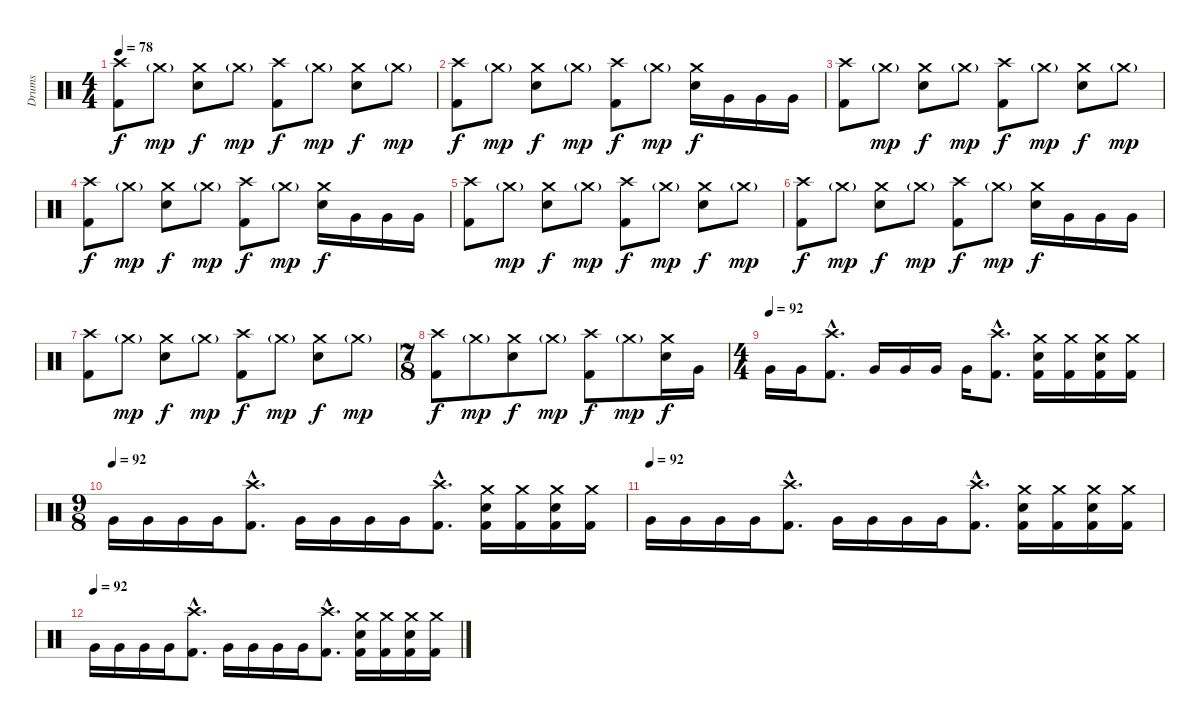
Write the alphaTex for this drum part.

\track ("Drums" "Drums") {instrument percussion}
\staff {score}
\articulation defaults
\ts (4 4)
\tempo 78
\clef neutral
\ks c
("Crash high (hit)" "Kick (hit) 2").8{dy f} "Crash medium (hit)"{g}.8{dy mp} ("Snare (hit) 2" "Crash medium (hit)").8{dy f} "Crash medium (hit)"{g}.8{dy mp} ("Crash high (hit)" "Kick (hit) 2").8{dy f} "Crash medium (hit)"{g}.8{dy mp} ("Snare (hit) 2" "Crash medium (hit)").8{dy f} "Crash medium (hit)"{g}.8{dy mp} |
("Crash high (hit)" "Kick (hit) 2").8{dy f} "Crash medium (hit)"{g}.8{dy mp} ("Snare (hit) 2" "Crash medium (hit)").8{dy f} "Crash medium (hit)"{g}.8{dy mp} ("Crash high (hit)" "Kick (hit) 2").8{dy f} "Crash medium (hit)"{g}.8{dy mp} ("Snare (hit) 2" "Crash medium (hit)").16{dy f} "Very Low Tom (hit)".16 "Very Low Tom (hit)".16 "Very Low Tom (hit)".16 |
("Crash high (hit)" "Kick (hit) 2").8 "Crash medium (hit)"{g}.8{dy mp} ("Snare (hit) 2" "Crash medium (hit)").8{dy f} "Crash medium (hit)"{g}.8{dy mp} ("Crash high (hit)" "Kick (hit) 2").8{dy f} "Crash medium (hit)"{g}.8{dy mp} ("Snare (hit) 2" "Crash medium (hit)").8{dy f} "Crash medium (hit)"{g}.8{dy mp} |
("Crash high (hit)" "Kick (hit) 2").8{dy f} "Crash medium (hit)"{g}.8{dy mp} ("Snare (hit) 2" "Crash medium (hit)").8{dy f} "Crash medium (hit)"{g}.8{dy mp} ("Crash high (hit)" "Kick (hit) 2").8{dy f} "Crash medium (hit)"{g}.8{dy mp} ("Snare (hit) 2" "Crash medium (hit)").16{dy f} "Very Low Tom (hit)".16 "Very Low Tom (hit)".16 "Very Low Tom (hit)".16 |
("Crash high (hit)" "Kick (hit) 2").8 "Crash medium (hit)"{g}.8{dy mp} ("Snare (hit) 2" "Crash medium (hit)").8{dy f} "Crash medium (hit)"{g}.8{dy mp} ("Crash high (hit)" "Kick (hit) 2").8{dy f} "Crash medium (hit)"{g}.8{dy mp} ("Snare (hit) 2" "Crash medium (hit)").8{dy f} "Crash medium (hit)"{g}.8{dy mp} |
("Crash high (hit)" "Kick (hit) 2").8{dy f} "Crash medium (hit)"{g}.8{dy mp} ("Snare (hit) 2" "Crash medium (hit)").8{dy f} "Crash medium (hit)"{g}.8{dy mp} ("Crash high (hit)" "Kick (hit) 2").8{dy f} "Crash medium (hit)"{g}.8{dy mp} ("Snare (hit) 2" "Crash medium (hit)").16{dy f} "Very Low Tom (hit)".16 "Very Low Tom (hit)".16 "Very Low Tom (hit)".16 |
("Crash high (hit)" "Kick (hit) 2").8 "Crash medium (hit)"{g}.8{dy mp} ("Snare (hit) 2" "Crash medium (hit)").8{dy f} "Crash medium (hit)"{g}.8{dy mp} ("Crash high (hit)" "Kick (hit) 2").8{dy f} "Crash medium (hit)"{g}.8{dy mp} ("Snare (hit) 2" "Crash medium (hit)").8{dy f} "Crash medium (hit)"{g}.8{dy mp} |
\ts (7 8)
("Crash high (hit)" "Kick (hit) 2").8{dy f} "Crash medium (hit)"{g}.8{dy mp} ("Snare (hit) 2" "Crash medium (hit)").8{dy f} "Crash medium (hit)"{g}.8{dy mp} ("Crash high (hit)" "Kick (hit) 2").8{dy f} "Crash medium (hit)"{g}.8{dy mp} ("Snare (hit) 2" "Crash medium (hit)").16{dy f} "Very Low Tom (hit)".16 |
\ts (4 4)
\tempo (92)
"Very Low Tom (hit)".16 "Very Low Tom (hit)".16 ("Crash high (hit)"{hac} "Kick (hit) 2"{hac}).8{d} "Very Low Tom (hit)".16 "Very Low Tom (hit)".16 "Very Low Tom (hit)".16 "Very Low Tom (hit)".16 ("Crash high (hit)"{hac} "Kick (hit) 2"{hac}).8{d} ("Snare (hit) 2" "Crash medium (hit)" "Kick (hit) 2").16 ("Crash medium (hit)" "Kick (hit) 2").16 ("Snare (hit) 2" "Crash medium (hit)" "Kick (hit) 2").16 ("Crash medium (hit)" "Kick (hit) 2").16 |
\ts (9 8)
\tempo (92)
"Very Low Tom (hit)".16 "Very Low Tom (hit)".16 "Very Low Tom (hit)".16 "Very Low Tom (hit)".16 ("Crash high (hit)"{hac} "Kick (hit) 2"{hac}).8{d} "Very Low Tom (hit)".16 "Very Low Tom (hit)".16 "Very Low Tom (hit)".16 "Very Low Tom (hit)".16 ("Crash high (hit)"{hac} "Kick (hit) 2"{hac}).8{d} ("Snare (hit) 2" "Crash medium (hit)" "Kick (hit) 2").16 ("Crash medium (hit)" "Kick (hit) 2").16 ("Snare (hit) 2" "Crash medium (hit)" "Kick (hit) 2").16 ("Crash medium (hit)" "Kick (hit) 2").16 |
\tempo (92)
"Very Low Tom (hit)".16 "Very Low Tom (hit)".16 "Very Low Tom (hit)".16 "Very Low Tom (hit)".16 ("Crash high (hit)"{hac} "Kick (hit) 2"{hac}).8{d} "Very Low Tom (hit)".16 "Very Low Tom (hit)".16 "Very Low Tom (hit)".16 "Very Low Tom (hit)".16 ("Crash high (hit)"{hac} "Kick (hit) 2"{hac}).8{d} ("Snare (hit) 2" "Crash medium (hit)" "Kick (hit) 2").16 ("Crash medium (hit)" "Kick (hit) 2").16 ("Snare (hit) 2" "Crash medium (hit)" "Kick (hit) 2").16 ("Crash medium (hit)" "Kick (hit) 2").16 |
\tempo (92)
"Very Low Tom (hit)".16 "Very Low Tom (hit)".16 "Very Low Tom (hit)".16 "Very Low Tom (hit)".16 ("Crash high (hit)"{hac} "Kick (hit) 2"{hac}).8{d} "Very Low Tom (hit)".16 "Very Low Tom (hit)".16 "Very Low Tom (hit)".16 "Very Low Tom (hit)".16 ("Crash high (hit)"{hac} "Kick (hit) 2"{hac}).8{d} ("Snare (hit) 2" "Crash medium (hit)" "Kick (hit) 2").16 ("Crash medium (hit)" "Kick (hit) 2").16 ("Snare (hit) 2" "Crash medium (hit)" "Kick (hit) 2").16 ("Crash medium (hit)" "Kick (hit) 2").16
